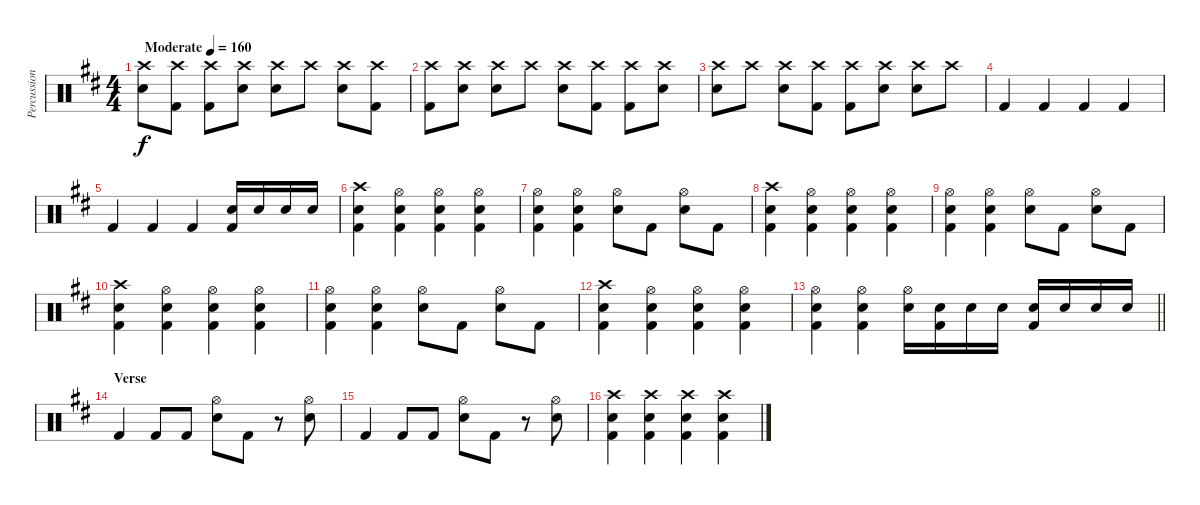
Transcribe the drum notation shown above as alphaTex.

\track ("Percussion" "Percussion") {instrument percussion}
\staff {score}
\articulation defaults
\ts (4 4)
\tempo (160 "Moderate")
\clef neutral
\ks d
("Crash high (hit)" "Electric Snare (hit)").8{dy f} ("Crash high (hit)" "Kick (hit) 2").8 ("Crash high (hit)" "Kick (hit) 2").8 ("Crash high (hit)" "Electric Snare (hit)").8 ("Crash high (hit)" "Electric Snare (hit)").8 "Crash high (hit)".8 ("Crash high (hit)" "Electric Snare (hit)").8 ("Crash high (hit)" "Kick (hit) 2").8 |
("Crash high (hit)" "Kick (hit) 2").8 ("Crash high (hit)" "Electric Snare (hit)").8 ("Crash high (hit)" "Electric Snare (hit)").8 "Crash high (hit)".8 ("Crash high (hit)" "Electric Snare (hit)").8 ("Crash high (hit)" "Kick (hit) 2").8 ("Crash high (hit)" "Kick (hit) 2").8 ("Crash high (hit)" "Electric Snare (hit)").8 |
("Crash high (hit)" "Electric Snare (hit)").8 "Crash high (hit)".8 ("Crash high (hit)" "Electric Snare (hit)").8 ("Crash high (hit)" "Kick (hit) 2").8 ("Crash high (hit)" "Kick (hit) 2").8 ("Crash high (hit)" "Electric Snare (hit)").8 ("Crash high (hit)" "Electric Snare (hit)").8 "Crash high (hit)".8 |
"Kick (hit) 2".4 "Kick (hit) 2".4 "Kick (hit) 2".4 "Kick (hit) 2".4 |
"Kick (hit) 2".4 "Kick (hit) 2".4 "Kick (hit) 2".4 ("Electric Snare (hit)" "Kick (hit) 2").16 "Electric Snare (hit)".16 "Electric Snare (hit)".16 "Electric Snare (hit)".16 |
("Crash high (hit)" "Electric Snare (hit)" "Kick (hit) 2").4 ("Hi-Hat (open)" "Electric Snare (hit)" "Kick (hit) 2").4 ("Hi-Hat (open)" "Electric Snare (hit)" "Kick (hit) 2").4 ("Hi-Hat (open)" "Electric Snare (hit)" "Kick (hit) 2").4 |
("Hi-Hat (open)" "Electric Snare (hit)" "Kick (hit) 2").4 ("Hi-Hat (open)" "Electric Snare (hit)" "Kick (hit) 2").4 ("Hi-Hat (open)" "Electric Snare (hit)").8 "Kick (hit) 2".8 ("Hi-Hat (open)" "Electric Snare (hit)").8 "Kick (hit) 2".8 |
("Crash high (hit)" "Electric Snare (hit)" "Kick (hit) 2").4 ("Hi-Hat (open)" "Electric Snare (hit)" "Kick (hit) 2").4 ("Hi-Hat (open)" "Electric Snare (hit)" "Kick (hit) 2").4 ("Hi-Hat (open)" "Electric Snare (hit)" "Kick (hit) 2").4 |
("Hi-Hat (open)" "Electric Snare (hit)" "Kick (hit) 2").4 ("Hi-Hat (open)" "Electric Snare (hit)" "Kick (hit) 2").4 ("Hi-Hat (open)" "Electric Snare (hit)").8 "Kick (hit) 2".8 ("Hi-Hat (open)" "Electric Snare (hit)").8 "Kick (hit) 2".8 |
("Crash high (hit)" "Electric Snare (hit)" "Kick (hit) 2").4 ("Hi-Hat (open)" "Electric Snare (hit)" "Kick (hit) 2").4 ("Hi-Hat (open)" "Electric Snare (hit)" "Kick (hit) 2").4 ("Hi-Hat (open)" "Electric Snare (hit)" "Kick (hit) 2").4 |
("Hi-Hat (open)" "Electric Snare (hit)" "Kick (hit) 2").4 ("Hi-Hat (open)" "Electric Snare (hit)" "Kick (hit) 2").4 ("Hi-Hat (open)" "Electric Snare (hit)").8 "Kick (hit) 2".8 ("Hi-Hat (open)" "Electric Snare (hit)").8 "Kick (hit) 2".8 |
("Crash high (hit)" "Electric Snare (hit)" "Kick (hit) 2").4 ("Hi-Hat (open)" "Electric Snare (hit)" "Kick (hit) 2").4 ("Hi-Hat (open)" "Electric Snare (hit)" "Kick (hit) 2").4 ("Hi-Hat (open)" "Electric Snare (hit)" "Kick (hit) 2").4 |
\barLineRight lightlight
("Hi-Hat (open)" "Electric Snare (hit)" "Kick (hit) 2").4 ("Hi-Hat (open)" "Electric Snare (hit)" "Kick (hit) 2").4 ("Hi-Hat (open)" "Electric Snare (hit)").16 ("Electric Snare (hit)" "Kick (hit) 2").16 "Electric Snare (hit)".16 "Electric Snare (hit)".16 ("Electric Snare (hit)" "Kick (hit) 2").16 "Electric Snare (hit)".16 "Electric Snare (hit)".16 "Electric Snare (hit)".16 |
\section ("" "Verse")
"Kick (hit) 2".4 "Kick (hit) 2".8 "Kick (hit) 2".8 ("Hi-Hat (open)" "Electric Snare (hit)").8 "Kick (hit) 2".8 r.8 ("Hi-Hat (open)" "Electric Snare (hit)").8 |
"Kick (hit) 2".4 "Kick (hit) 2".8 "Kick (hit) 2".8 ("Hi-Hat (open)" "Electric Snare (hit)").8 "Kick (hit) 2".8 r.8 ("Hi-Hat (open)" "Electric Snare (hit)").8 |
("Crash high (hit)" "Electric Snare (hit)" "Kick (hit) 2").4 ("Crash high (hit)" "Electric Snare (hit)" "Kick (hit) 2").4 ("Crash high (hit)" "Electric Snare (hit)" "Kick (hit) 2").4 ("Crash high (hit)" "Electric Snare (hit)" "Kick (hit) 2").4
